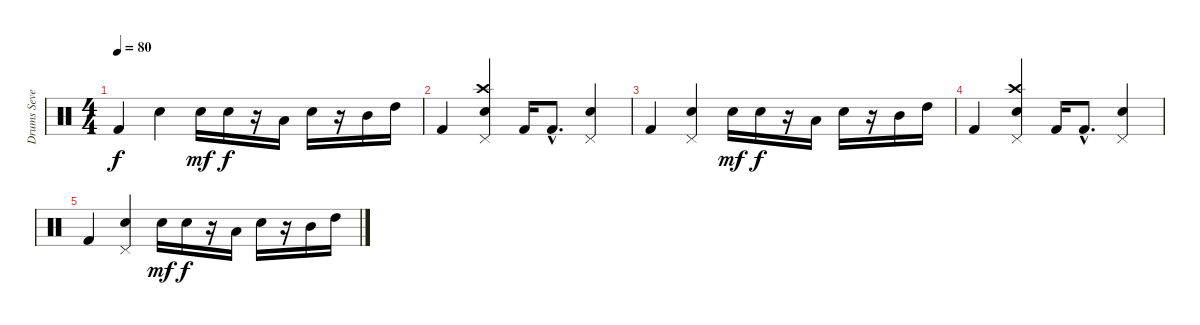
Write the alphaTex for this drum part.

\track ("Drums Severin " "Drums Seve") {instrument percussion}
\staff {score}
\articulation defaults
\ts (4 4)
\tempo 80
\clef neutral
\ks c "Kick (hit) 2".4{dy f} "Electric Snare (hit)".4 "Electric Snare (hit)".16{dy mf} "Electric Snare (hit)".16{dy f}
r.16 "Low Tom (hit)".16 "Electric Snare (hit)".16 r.16 "Mid Tom (hit)".16 "High Tom (hit)".16 |
"Kick (hit) 2".4 ("Electric Snare (hit)" "Crash high (hit)" "Pedal Hi-Hat (hit)").4 "Kick (hit) 2".16 "Kick (hit) 2"{hac}.8{d} ("Pedal Hi-Hat (hit)" "Electric Snare (hit)").4 |
"Kick (hit) 2".4 ("Pedal Hi-Hat (hit)" "Electric Snare (hit)").4 "Electric Snare (hit)".16{dy mf} "Electric Snare (hit)".16{dy f} r.16 "Low Tom (hit)".16 "Electric Snare (hit)".16 r.16 "Mid Tom (hit)".16 "High Tom (hit)".16 |
"Kick (hit) 2".4 ("Electric Snare (hit)" "Crash high (hit)" "Pedal Hi-Hat (hit)").4 "Kick (hit) 2".16 "Kick (hit) 2"{hac}.8{d} ("Pedal Hi-Hat (hit)" "Electric Snare (hit)").4 |
"Kick (hit) 2".4 ("Pedal Hi-Hat (hit)" "Electric Snare (hit)").4 "Electric Snare (hit)".16{dy mf} "Electric Snare (hit)".16{dy f} r.16 "Low Tom (hit)".16 "Electric Snare (hit)".16 r.16 "Mid Tom (hit)".16 "High Tom (hit)".16
